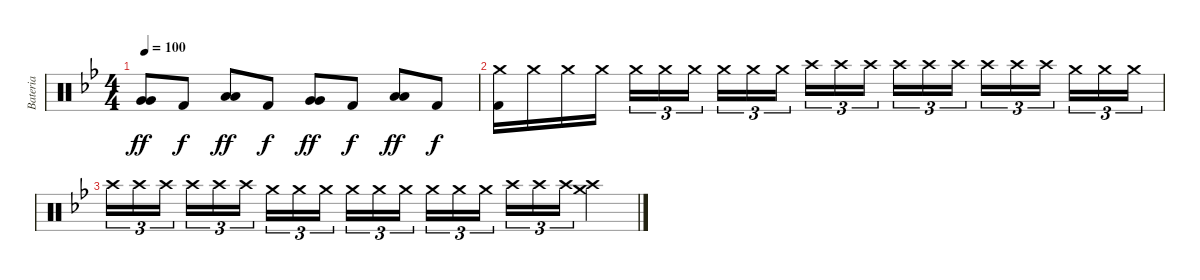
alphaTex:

\track ("Bateria" "Bateria") {instrument percussion}
\staff {score}
\articulation defaults
\ts (4 4)
\tempo 100
\clef neutral
\ks gminor
("Very Low Tom (hit)" "Very Low Tom (hit)").8{dy ff} "Kick (hit) 2".8{dy f} ("Low Floor Tom (hit)" "Low Floor Tom (hit)").8{dy ff} "Kick (hit) 2".8{dy f} ("Very Low Tom (hit)" "Very Low Tom (hit)").8{dy ff} "Kick (hit) 2".8{dy f} ("Low Floor Tom (hit)" "Low Floor Tom (hit)").8{dy ff} "Kick (hit) 2".8{dy f} |
("Crash medium (hit)" "Kick (hit) 2").16{volume 4} "Crash medium (hit)".16 "Crash medium (hit)".16 "Crash medium (hit)".16 "Crash medium (hit)".16{tu (3 2)} "Crash medium (hit)".16{tu (3 2)} "Crash medium (hit)".16{tu (3 2) beam splitsecondary} "Crash medium (hit)".16{tu (3 2)} "Crash medium (hit)".16{tu (3 2)} "Crash medium (hit)".16{tu (3 2)} "Crash high (hit)".16{tu (3 2)} "Crash high (hit)".16{tu (3 2)} "Crash high (hit)".16{tu (3 2) beam splitsecondary} "Crash high (hit)".16{tu (3 2)} "Crash high (hit)".16{tu (3 2)} "Crash high (hit)".16{tu (3 2)} "Crash high (hit)".16{tu (3 2)} "Crash high (hit)".16{tu (3 2)} "Crash high (hit)".16{tu (3 2) beam splitsecondary} "Crash medium (hit)".16{tu (3 2)} "Crash medium (hit)".16{tu (3 2)} "Crash medium (hit)".16{tu (3 2)} |
"Crash high (hit)".16{tu (3 2)} "Crash high (hit)".16{tu (3 2)} "Crash high (hit)".16{tu (3 2) beam splitsecondary} "Crash high (hit)".16{tu (3 2)} "Crash high (hit)".16{tu (3 2)} "Crash high (hit)".16{tu (3 2)} "Crash medium (hit)".16{tu (3 2)} "Crash medium (hit)".16{tu (3 2)} "Crash medium (hit)".16{tu (3 2) beam splitsecondary} "Crash medium (hit)".16{tu (3 2)} "Crash medium (hit)".16{tu (3 2)} "Crash medium (hit)".16{tu (3 2)} "Crash medium (hit)".16{tu (3 2)} "Crash medium (hit)".16{tu (3 2)} "Crash medium (hit)".16{tu (3 2) beam splitsecondary} "Crash high (hit)".16{tu (3 2)} "Crash high (hit)".16{tu (3 2)} "Crash high (hit)".16{tu (3 2)} ("Crash medium (hit)" "Crash high (hit)").4
